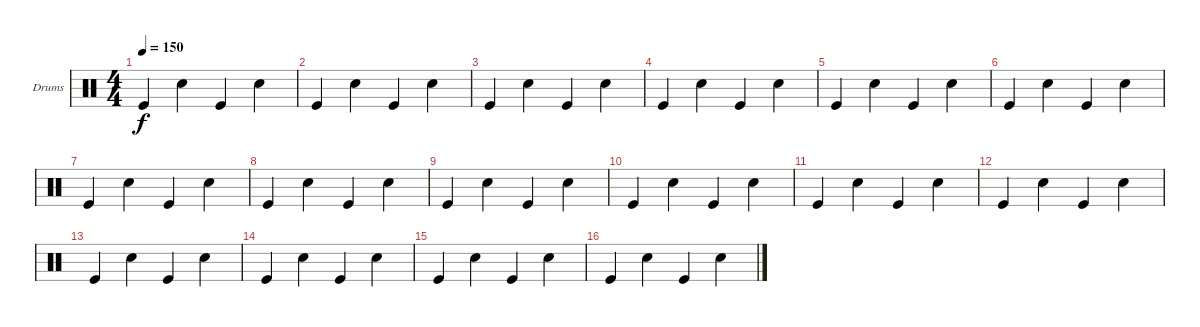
\bracketExtendMode groupsimilarinstruments
\firstSystemTrackNameOrientation horizontal
\otherSystemsTrackNameOrientation horizontal
\track ("Drumkit" "Drums") {instrument percussion}
\staff {score}
\articulation defaults
\ts (4 4)
\tempo 150
\clef neutral
\ks c "Kick (hit)".4{dy f} "Snare (hit) 2".4 "Kick (hit)".4 "Snare (hit) 2".4
|
"Kick (hit)".4 "Snare (hit) 2".4 "Kick (hit)".4 "Snare (hit) 2".4 |
"Kick (hit)".4 "Snare (hit) 2".4 "Kick (hit)".4 "Snare (hit) 2".4 |
"Kick (hit)".4 "Snare (hit) 2".4 "Kick (hit)".4 "Snare (hit) 2".4 |
"Kick (hit)".4 "Snare (hit) 2".4 "Kick (hit)".4 "Snare (hit) 2".4 |
"Kick (hit)".4 "Snare (hit) 2".4 "Kick (hit)".4 "Snare (hit) 2".4 |
"Kick (hit)".4 "Snare (hit) 2".4 "Kick (hit)".4 "Snare (hit) 2".4 |
"Kick (hit)".4 "Snare (hit) 2".4 "Kick (hit)".4 "Snare (hit) 2".4 |
"Kick (hit)".4 "Snare (hit) 2".4 "Kick (hit)".4 "Snare (hit) 2".4 |
"Kick (hit)".4 "Snare (hit) 2".4 "Kick (hit)".4 "Snare (hit) 2".4 |
"Kick (hit)".4 "Snare (hit) 2".4 "Kick (hit)".4 "Snare (hit) 2".4 |
"Kick (hit)".4 "Snare (hit) 2".4 "Kick (hit)".4 "Snare (hit) 2".4 |
"Kick (hit)".4 "Snare (hit) 2".4 "Kick (hit)".4 "Snare (hit) 2".4 |
"Kick (hit)".4 "Snare (hit) 2".4 "Kick (hit)".4 "Snare (hit) 2".4 |
"Kick (hit)".4 "Snare (hit) 2".4 "Kick (hit)".4 "Snare (hit) 2".4 |
"Kick (hit)".4 "Snare (hit) 2".4 "Kick (hit)".4 "Snare (hit) 2".4
